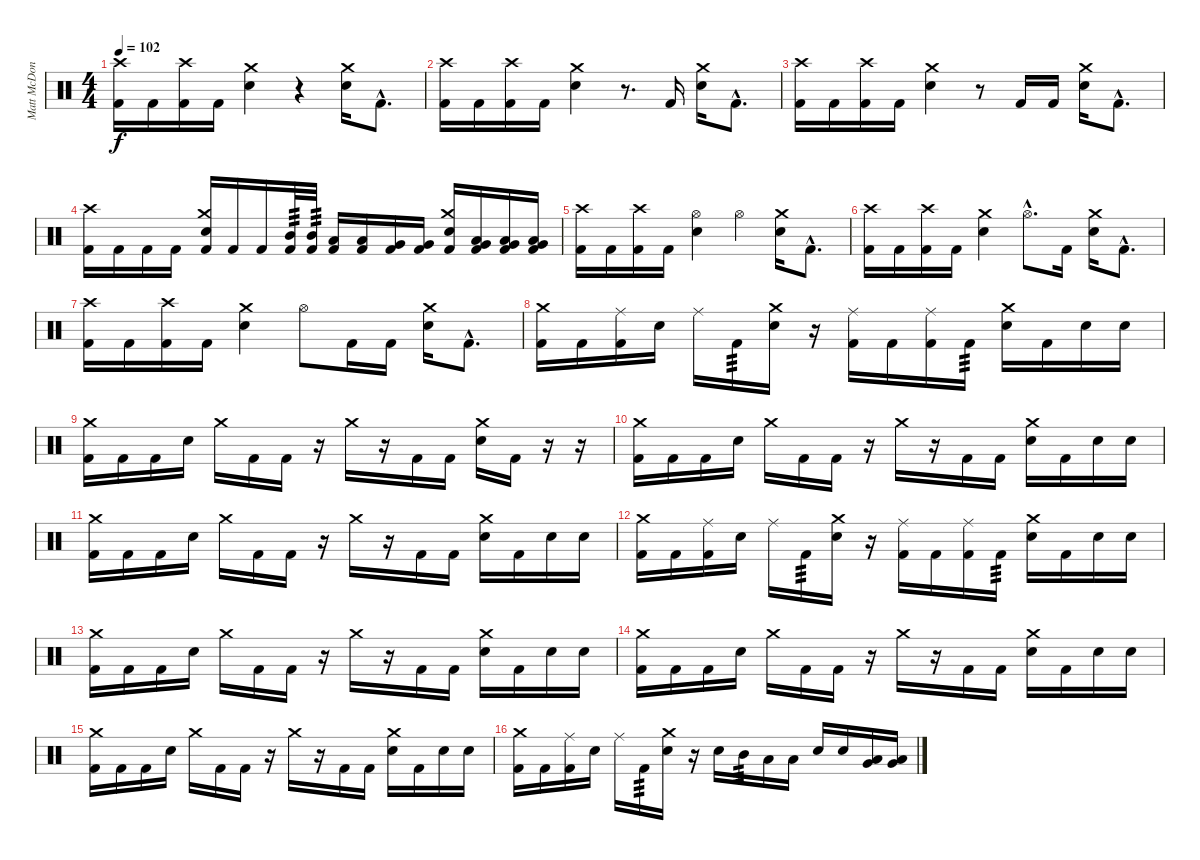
\track ("Matt McDonough" "Matt McDon") {instrument percussion}
\staff {score}
\articulation defaults
\ts (4 4)
\tempo 102
\clef neutral
\ks c
("Crash high (hit)" "Kick (hit) 2").16{dy f} "Kick (hit) 2".16 ("Crash high (hit)" "Kick (hit) 2").16 "Kick (hit) 2".16 ("Crash medium (hit)" "Electric Snare (hit)").4 r.4 ("Crash medium (hit)" "Electric Snare (hit)").16 "Kick (hit) 2"{hac}.8{d} |
("Crash high (hit)" "Kick (hit) 2").16 "Kick (hit) 2".16 ("Crash high (hit)" "Kick (hit) 2").16 "Kick (hit) 2".16 ("Crash medium (hit)" "Electric Snare (hit)").4 r.8{d} "Kick (hit) 2".16 ("Crash medium (hit)" "Electric Snare (hit)").16 "Kick (hit) 2"{hac}.8{d} |
("Crash high (hit)" "Kick (hit) 2").16 "Kick (hit) 2".16 ("Crash high (hit)" "Kick (hit) 2").16 "Kick (hit) 2".16 ("Crash medium (hit)" "Electric Snare (hit)").4 r.8 "Kick (hit) 2".16 "Kick (hit) 2".16 ("Crash medium (hit)" "Electric Snare (hit)").16 "Kick (hit) 2"{hac}.8{d} |
("Crash high (hit)" "Kick (hit) 2").16 "Kick (hit) 2".16 "Kick (hit) 2".16 "Kick (hit) 2".16 ("Crash medium (hit)" "Electric Snare (hit)" "Kick (hit) 2").16 "Kick (hit) 2".16 "Kick (hit) 2".16 ("Mid Tom (hit)" "Kick (hit) 2").32{tp 3} ("Mid Tom (hit)" "Kick (hit) 2").32{tp 3} ("Low Tom (hit)" "Kick (hit) 2").16 ("Low Tom (hit)" "Kick (hit) 2").16 ("Very Low Tom (hit)" "Kick (hit) 2").16 ("Very Low Tom (hit)" "Kick (hit) 2").16 ("Crash medium (hit)" "Electric Snare (hit)" "Kick (hit) 2").16 ("Very Low Tom (hit)" "Low Floor Tom (hit)" "Kick (hit) 2").16 ("Very Low Tom (hit)" "Low Floor Tom (hit)" "Kick (hit) 2").16 ("Very Low Tom (hit)" "Low Floor Tom (hit)" "Kick (hit) 2").16 |
("Crash high (hit)" "Kick (hit) 2").16 "Kick (hit) 2".16 ("Crash high (hit)" "Kick (hit) 2").16 "Kick (hit) 2".16 ("Hi-Hat (open)" "Electric Snare (hit)").4 "Hi-Hat (open)".4 ("Crash medium (hit)" "Electric Snare (hit)").16 "Kick (hit) 2"{hac}.8{d} |
("Crash high (hit)" "Kick (hit) 2").16 "Kick (hit) 2".16 ("Crash high (hit)" "Kick (hit) 2").16 "Kick (hit) 2".16 ("Crash medium (hit)" "Electric Snare (hit)").4 "Hi-Hat (open)"{hac}.8{d} "Kick (hit) 2".16 ("Crash medium (hit)" "Electric Snare (hit)").16 "Kick (hit) 2"{hac}.8{d} |
("Crash high (hit)" "Kick (hit) 2").16 "Kick (hit) 2".16 ("Crash high (hit)" "Kick (hit) 2").16 "Kick (hit) 2".16 ("Crash medium (hit)" "Electric Snare (hit)").4 "Hi-Hat (open)".8 "Kick (hit) 2".16 "Kick (hit) 2".16 ("Crash medium (hit)" "Electric Snare (hit)").16 "Kick (hit) 2"{hac}.8{d} |
("Crash medium (hit)" "Kick (hit) 2").16 "Kick (hit) 2".16 ("Ride (middle)" "Kick (hit) 2").16 "Electric Snare (hit)".16 "Ride (middle)".16 "Kick (hit) 2".16{tp 3} ("Crash medium (hit)" "Electric Snare (hit)").16 r.16 ("Ride (middle)" "Kick (hit) 2").16 "Kick (hit) 2".16 ("Ride (middle)" "Kick (hit) 2").16 "Kick (hit) 2".16{tp 3} ("Crash medium (hit)" "Electric Snare (hit)").16 "Kick (hit) 2".16 "Electric Snare (hit)".16 "Electric Snare (hit)".16 |
("Crash medium (hit)" "Kick (hit) 2").16 "Kick (hit) 2".16 "Kick (hit) 2".16 "Electric Snare (hit)".16 "Crash medium (hit)".16 "Kick (hit) 2".16 "Kick (hit) 2".16 r.16 "Crash medium (hit)".16 r.16 "Kick (hit) 2".16 "Kick (hit) 2".16 ("Crash medium (hit)" "Electric Snare (hit)").16 "Kick (hit) 2".16 r.16 r.16 |
("Crash medium (hit)" "Kick (hit) 2").16 "Kick (hit) 2".16 "Kick (hit) 2".16 "Electric Snare (hit)".16 "Crash medium (hit)".16 "Kick (hit) 2".16 "Kick (hit) 2".16 r.16 "Crash medium (hit)".16 r.16 "Kick (hit) 2".16 "Kick (hit) 2".16 ("Crash medium (hit)" "Electric Snare (hit)").16 "Kick (hit) 2".16 "Electric Snare (hit)".16 "Electric Snare (hit)".16 |
("Crash medium (hit)" "Kick (hit) 2").16 "Kick (hit) 2".16 "Kick (hit) 2".16 "Electric Snare (hit)".16 "Crash medium (hit)".16 "Kick (hit) 2".16 "Kick (hit) 2".16 r.16 "Crash medium (hit)".16 r.16 "Kick (hit) 2".16 "Kick (hit) 2".16 ("Crash medium (hit)" "Electric Snare (hit)").16 "Kick (hit) 2".16 "Electric Snare (hit)".16 "Electric Snare (hit)".16 |
("Crash medium (hit)" "Kick (hit) 2").16 "Kick (hit) 2".16 ("Ride (middle)" "Kick (hit) 2").16 "Electric Snare (hit)".16 "Ride (middle)".16 "Kick (hit) 2".16{tp 3} ("Crash medium (hit)" "Electric Snare (hit)").16 r.16 ("Ride (middle)" "Kick (hit) 2").16 "Kick (hit) 2".16 ("Ride (middle)" "Kick (hit) 2").16 "Kick (hit) 2".16{tp 3} ("Crash medium (hit)" "Electric Snare (hit)").16 "Kick (hit) 2".16 "Electric Snare (hit)".16 "Electric Snare (hit)".16 |
("Crash medium (hit)" "Kick (hit) 2").16 "Kick (hit) 2".16 "Kick (hit) 2".16 "Electric Snare (hit)".16 "Crash medium (hit)".16 "Kick (hit) 2".16 "Kick (hit) 2".16 r.16 "Crash medium (hit)".16 r.16 "Kick (hit) 2".16 "Kick (hit) 2".16 ("Crash medium (hit)" "Electric Snare (hit)").16 "Kick (hit) 2".16 "Electric Snare (hit)".16 "Electric Snare (hit)".16 |
("Crash medium (hit)" "Kick (hit) 2").16 "Kick (hit) 2".16 "Kick (hit) 2".16 "Electric Snare (hit)".16 "Crash medium (hit)".16 "Kick (hit) 2".16 "Kick (hit) 2".16 r.16 "Crash medium (hit)".16 r.16 "Kick (hit) 2".16 "Kick (hit) 2".16 ("Crash medium (hit)" "Electric Snare (hit)").16 "Kick (hit) 2".16 "Electric Snare (hit)".16 "Electric Snare (hit)".16 |
("Crash medium (hit)" "Kick (hit) 2").16 "Kick (hit) 2".16 "Kick (hit) 2".16 "Electric Snare (hit)".16 "Crash medium (hit)".16 "Kick (hit) 2".16 "Kick (hit) 2".16 r.16 "Crash medium (hit)".16 r.16 "Kick (hit) 2".16 "Kick (hit) 2".16 ("Crash medium (hit)" "Electric Snare (hit)").16 "Kick (hit) 2".16 "Electric Snare (hit)".16 "Electric Snare (hit)".16 |
("Crash medium (hit)" "Kick (hit) 2").16 "Kick (hit) 2".16 ("Ride (middle)" "Kick (hit) 2").16 "Electric Snare (hit)".16 "Ride (middle)".16 "Kick (hit) 2".16{tp 3} ("Crash medium (hit)" "Electric Snare (hit)").16 r.16 "Electric Snare (hit)".16 "Mid Tom (hit)".16{tp 3} "Low Tom (hit)".16 "Low Tom (hit)".16 "Electric Snare (hit)".16 "Electric Snare (hit)".16 ("Very Low Tom (hit)" "Low Floor Tom (hit)").16 ("Very Low Tom (hit)" "Low Floor Tom (hit)").16
